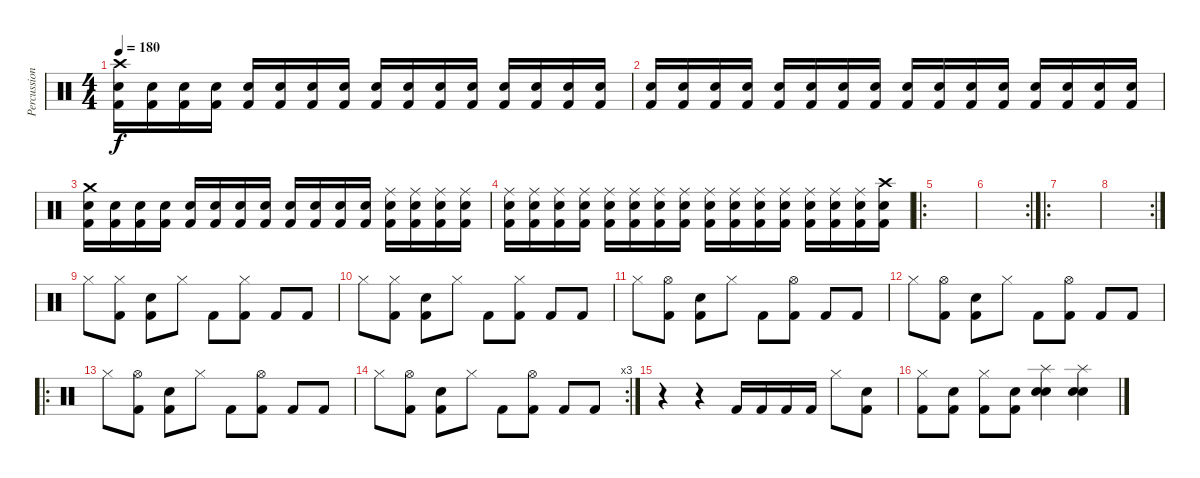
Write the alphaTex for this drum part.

\track ("Percussion" "Percussion") {instrument percussion}
\staff {score}
\articulation defaults
\ts (4 4)
\tempo 180
\clef neutral
\ks c
("Crash high (hit)" "Snare (hit) 2" "Kick (hit) 2").16{dy f} ("Electric Snare (hit)" "Kick (hit) 2").16 ("Snare (hit) 2" "Kick (hit) 2").16 ("Electric Snare (hit)" "Kick (hit) 2").16 ("Snare (hit) 2" "Kick (hit) 2").16 ("Electric Snare (hit)" "Kick (hit) 2").16 ("Snare (hit) 2" "Kick (hit) 2").16 ("Electric Snare (hit)" "Kick (hit) 2").16 ("Snare (hit) 2" "Kick (hit) 2").16 ("Electric Snare (hit)" "Kick (hit) 2").16 ("Snare (hit) 2" "Kick (hit) 2").16 ("Electric Snare (hit)" "Kick (hit) 2").16 ("Snare (hit) 2" "Kick (hit) 2").16 ("Electric Snare (hit)" "Kick (hit) 2").16 ("Snare (hit) 2" "Kick (hit) 2").16 ("Electric Snare (hit)" "Kick (hit) 2").16 |
("Snare (hit) 2" "Kick (hit) 2").16 ("Electric Snare (hit)" "Kick (hit) 2").16 ("Snare (hit) 2" "Kick (hit) 2").16 ("Electric Snare (hit)" "Kick (hit) 2").16 ("Snare (hit) 2" "Kick (hit) 2").16 ("Electric Snare (hit)" "Kick (hit) 2").16 ("Snare (hit) 2" "Kick (hit) 2").16 ("Electric Snare (hit)" "Kick (hit) 2").16 ("Snare (hit) 2" "Kick (hit) 2").16 ("Electric Snare (hit)" "Kick (hit) 2").16 ("Snare (hit) 2" "Kick (hit) 2").16 ("Electric Snare (hit)" "Kick (hit) 2").16 ("Snare (hit) 2" "Kick (hit) 2").16 ("Electric Snare (hit)" "Kick (hit) 2").16 ("Snare (hit) 2" "Kick (hit) 2").16 ("Electric Snare (hit)" "Kick (hit) 2").16 |
("Crash medium (hit)" "Snare (hit) 2" "Kick (hit) 2").16 ("Electric Snare (hit)" "Kick (hit) 2").16 ("Snare (hit) 2" "Kick (hit) 2").16 ("Electric Snare (hit)" "Kick (hit) 2").16 ("Snare (hit) 2" "Kick (hit) 2").16 ("Electric Snare (hit)" "Kick (hit) 2").16 ("Snare (hit) 2" "Kick (hit) 2").16 ("Electric Snare (hit)" "Kick (hit) 2").16 ("Snare (hit) 2" "Kick (hit) 2").16 ("Electric Snare (hit)" "Kick (hit) 2").16 ("Snare (hit) 2" "Kick (hit) 2").16 ("Electric Snare (hit)" "Kick (hit) 2").16 ("Ride (middle)" "Snare (hit) 2" "Kick (hit) 2").16 ("Ride (middle)" "Electric Snare (hit)" "Kick (hit) 2").16 ("Ride (middle)" "Snare (hit) 2" "Kick (hit) 2").16 ("Ride (middle)" "Electric Snare (hit)" "Kick (hit) 2").16 |
("Ride (middle)" "Snare (hit) 2" "Kick (hit) 2").16 ("Ride (middle)" "Electric Snare (hit)" "Kick (hit) 2").16 ("Ride (middle)" "Snare (hit) 2" "Kick (hit) 2").16 ("Ride (middle)" "Electric Snare (hit)" "Kick (hit) 2").16 ("Ride (middle)" "Snare (hit) 2" "Kick (hit) 2").16 ("Ride (middle)" "Electric Snare (hit)" "Kick (hit) 2").16 ("Ride (middle)" "Snare (hit) 2" "Kick (hit) 2").16 ("Ride (middle)" "Electric Snare (hit)" "Kick (hit) 2").16 ("Ride (middle)" "Snare (hit) 2" "Kick (hit) 2").16 ("Ride (middle)" "Electric Snare (hit)" "Kick (hit) 2").16 ("Ride (middle)" "Snare (hit) 2" "Kick (hit) 2").16 ("Ride (middle)" "Electric Snare (hit)" "Kick (hit) 2").16 ("Ride (middle)" "Snare (hit) 2" "Kick (hit) 2").16 ("Ride (middle)" "Electric Snare (hit)" "Kick (hit) 2").16 ("Ride (middle)" "Snare (hit) 2" "Kick (hit) 2").16 ("Crash high (hit)" "Electric Snare (hit)" "Kick (hit) 2").16 |
\ro
|
\rc 2
|
\ro
|
\rc 2
|
"Hi-Hat (closed)".8 ("Hi-Hat (closed)" "Kick (hit) 2").8 ("Electric Snare (hit)" "Kick (hit) 2").8 "Hi-Hat (closed)".8 "Kick (hit) 2".8 ("Hi-Hat (closed)" "Kick (hit) 2").8 "Kick (hit) 2".8 "Kick (hit) 2".8 |
"Hi-Hat (closed)".8 ("Hi-Hat (closed)" "Kick (hit) 2").8 ("Electric Snare (hit)" "Kick (hit) 2").8 "Hi-Hat (closed)".8 "Kick (hit) 2".8 ("Hi-Hat (closed)" "Kick (hit) 2").8 "Kick (hit) 2".8 "Kick (hit) 2".8 |
"Hi-Hat (closed)".8 ("Hi-Hat (open)" "Kick (hit) 2").8 ("Electric Snare (hit)" "Kick (hit) 2").8 "Hi-Hat (closed)".8 "Kick (hit) 2".8 ("Hi-Hat (open)" "Kick (hit) 2").8 "Kick (hit) 2".8 "Kick (hit) 2".8 |
"Hi-Hat (closed)".8 ("Hi-Hat (open)" "Kick (hit) 2").8 ("Electric Snare (hit)" "Kick (hit) 2").8 "Hi-Hat (closed)".8 "Kick (hit) 2".8 ("Hi-Hat (open)" "Kick (hit) 2").8 "Kick (hit) 2".8 "Kick (hit) 2".8 |
\ro "Hi-Hat (closed)".8
("Hi-Hat (open)" "Kick (hit) 2").8 ("Electric Snare (hit)" "Kick (hit) 2").8 "Hi-Hat (closed)".8 "Kick (hit) 2".8 ("Hi-Hat (open)" "Kick (hit) 2").8 "Kick (hit) 2".8 "Kick (hit) 2".8 |
\rc 3 "Hi-Hat (closed)".8
("Hi-Hat (open)" "Kick (hit) 2").8 ("Electric Snare (hit)" "Kick (hit) 2").8 "Hi-Hat (closed)".8 "Kick (hit) 2".8 ("Hi-Hat (open)" "Kick (hit) 2").8 "Kick (hit) 2".8 "Kick (hit) 2".8 |
r.4 r.4 "Kick (hit) 2".16 "Kick (hit) 2".16 "Kick (hit) 2".16 "Kick (hit) 2".16 "Hi-Hat (closed)".8 ("Electric Snare (hit)" "Kick (hit) 2").8 |
("Hi-Hat (closed)" "Kick (hit) 2").8 ("Electric Snare (hit)" "Kick (hit) 2").8 ("Hi-Hat (closed)" "Kick (hit) 2").8 ("Electric Snare (hit)" "Kick (hit) 2").8 ("Splash (hit)" "Snare (hit) 2" "Electric Snare (hit)").4 ("Splash (hit)" "Snare (hit) 2" "Electric Snare (hit)").4
